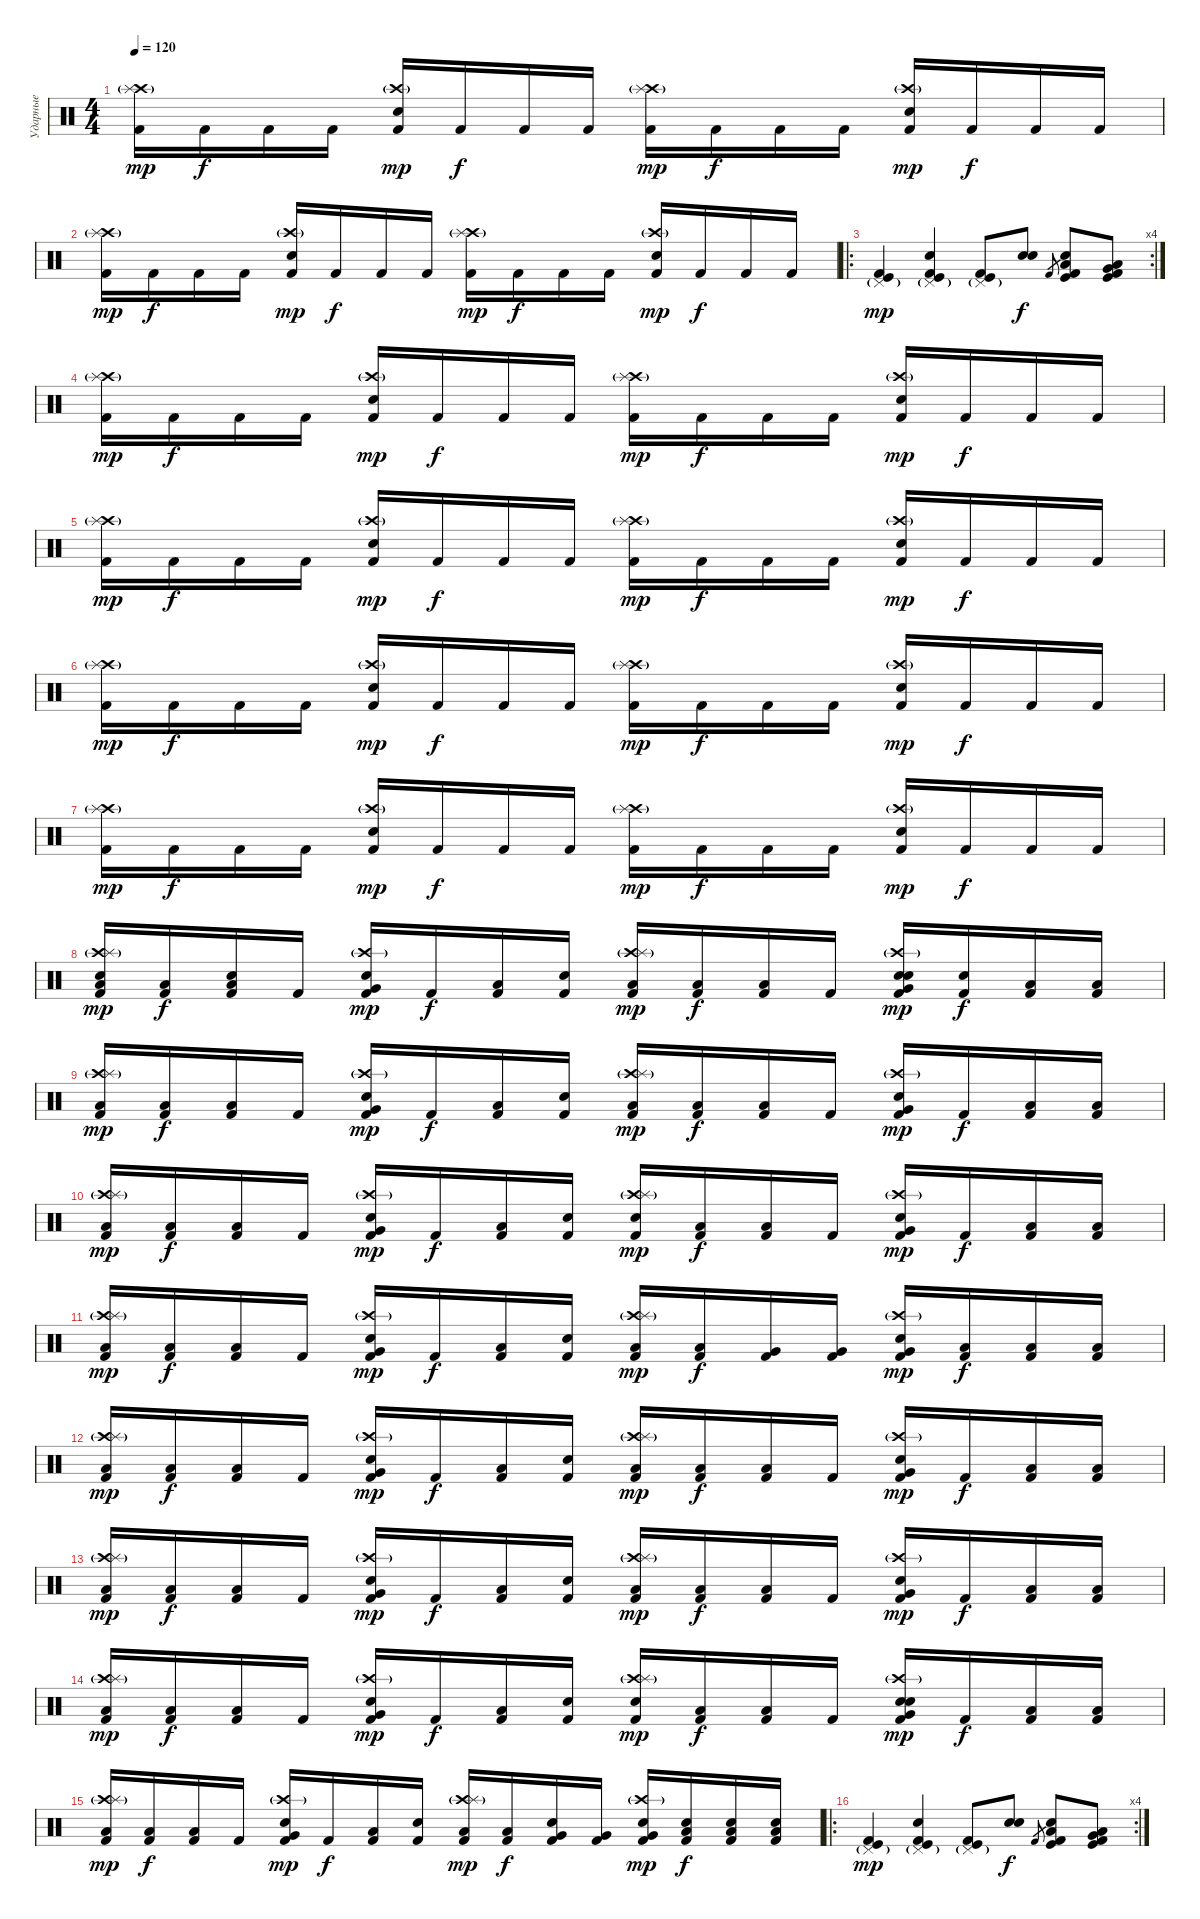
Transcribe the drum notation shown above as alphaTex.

\track ("Ударные" "Ударные") {instrument percussion bank 2}
\staff {score}
\articulation defaults
\ts (4 4)
\tempo 120
\clef neutral
\ks c
("Kick (hit) 2" "Crash high (hit)"{g} "Splash (hit)"{g}).16{dy mp} "Kick (hit) 2".16{dy f} "Kick (hit) 2".16 "Kick (hit) 2".16 ("Kick (hit) 2" "Snare (hit) 2" "Crash high (hit)"{g}).16{dy mp} "Kick (hit) 2".16{dy f} "Kick (hit) 2".16 "Kick (hit) 2".16 ("Kick (hit) 2" "Crash high (hit)"{g} "Splash (hit)"{g}).16{dy mp} "Kick (hit) 2".16{dy f} "Kick (hit) 2".16 "Kick (hit) 2".16 ("Kick (hit) 2" "Snare (hit) 2" "Crash high (hit)"{g}).16{dy mp} "Kick (hit) 2".16{dy f} "Kick (hit) 2".16 "Kick (hit) 2".16 |
("Kick (hit) 2" "Crash high (hit)"{g} "Splash (hit)"{g}).16{dy mp} "Kick (hit) 2".16{dy f} "Kick (hit) 2".16 "Kick (hit) 2".16 ("Kick (hit) 2" "Snare (hit) 2" "Crash high (hit)"{g}).16{dy mp} "Kick (hit) 2".16{dy f} "Kick (hit) 2".16 "Kick (hit) 2".16 ("Kick (hit) 2" "Crash high (hit)"{g} "Splash (hit)"{g}).16{dy mp} "Kick (hit) 2".16{dy f} "Kick (hit) 2".16 "Kick (hit) 2".16 ("Kick (hit) 2" "Snare (hit) 2" "Crash high (hit)"{g}).16{dy mp} "Kick (hit) 2".16{dy f} "Kick (hit) 2".16 "Kick (hit) 2".16 |
\ro
\rc 4
("Kick (hit) 2" "Pedal Hi-Hat (hit)"{g} "Kick (hit)").4{dy mp} ("Kick (hit) 2" "Pedal Hi-Hat (hit)"{g} "Snare (hit) 2" "Kick (hit)").4 ("Kick (hit) 2" "Pedal Hi-Hat (hit)"{g} "Kick (hit)").8 ("Snare (hit)" "Snare (hit)").8{dy f} "Kick (hit) 2".8{gr} ("Kick (hit) 2" "Low Tom (hit)" "Snare (hit) 2" "Kick (hit)").8 ("Kick (hit) 2" "Very Low Tom (hit)" "Low Floor Tom (hit)" "Kick (hit)").8 |
("Kick (hit) 2" "Crash high (hit)"{g} "Splash (hit)"{g}).16{dy mp} "Kick (hit) 2".16{dy f} "Kick (hit) 2".16 "Kick (hit) 2".16 ("Kick (hit) 2" "Snare (hit) 2" "Crash high (hit)"{g}).16{dy mp} "Kick (hit) 2".16{dy f} "Kick (hit) 2".16 "Kick (hit) 2".16 ("Kick (hit) 2" "Crash high (hit)"{g} "Splash (hit)"{g}).16{dy mp} "Kick (hit) 2".16{dy f} "Kick (hit) 2".16 "Kick (hit) 2".16 ("Kick (hit) 2" "Snare (hit) 2" "Crash high (hit)"{g}).16{dy mp} "Kick (hit) 2".16{dy f} "Kick (hit) 2".16 "Kick (hit) 2".16 |
("Kick (hit) 2" "Crash high (hit)"{g} "Splash (hit)"{g}).16{dy mp} "Kick (hit) 2".16{dy f} "Kick (hit) 2".16 "Kick (hit) 2".16 ("Kick (hit) 2" "Snare (hit) 2" "Crash high (hit)"{g}).16{dy mp} "Kick (hit) 2".16{dy f} "Kick (hit) 2".16 "Kick (hit) 2".16 ("Kick (hit) 2" "Crash high (hit)"{g} "Splash (hit)"{g}).16{dy mp} "Kick (hit) 2".16{dy f} "Kick (hit) 2".16 "Kick (hit) 2".16 ("Kick (hit) 2" "Snare (hit) 2" "Crash high (hit)"{g}).16{dy mp} "Kick (hit) 2".16{dy f} "Kick (hit) 2".16 "Kick (hit) 2".16 |
("Kick (hit) 2" "Crash high (hit)"{g} "Splash (hit)"{g}).16{dy mp} "Kick (hit) 2".16{dy f} "Kick (hit) 2".16 "Kick (hit) 2".16 ("Kick (hit) 2" "Snare (hit) 2" "Crash high (hit)"{g}).16{dy mp} "Kick (hit) 2".16{dy f} "Kick (hit) 2".16 "Kick (hit) 2".16 ("Kick (hit) 2" "Crash high (hit)"{g} "Splash (hit)"{g}).16{dy mp} "Kick (hit) 2".16{dy f} "Kick (hit) 2".16 "Kick (hit) 2".16 ("Kick (hit) 2" "Snare (hit) 2" "Crash high (hit)"{g}).16{dy mp} "Kick (hit) 2".16{dy f} "Kick (hit) 2".16 "Kick (hit) 2".16 |
("Kick (hit) 2" "Crash high (hit)"{g} "Splash (hit)"{g}).16{dy mp} "Kick (hit) 2".16{dy f} "Kick (hit) 2".16 "Kick (hit) 2".16 ("Kick (hit) 2" "Snare (hit) 2" "Crash high (hit)"{g}).16{dy mp} "Kick (hit) 2".16{dy f} "Kick (hit) 2".16 "Kick (hit) 2".16 ("Kick (hit) 2" "Crash high (hit)"{g} "Splash (hit)"{g}).16{dy mp} "Kick (hit) 2".16{dy f} "Kick (hit) 2".16 "Kick (hit) 2".16 ("Kick (hit) 2" "Snare (hit) 2" "Crash high (hit)"{g}).16{dy mp} "Kick (hit) 2".16{dy f} "Kick (hit) 2".16 "Kick (hit) 2".16 |
("Kick (hit) 2" "Snare (hit)" "Crash high (hit)"{g} "Splash (hit)"{g} "Low Floor Tom (hit)").16{dy mp} ("Kick (hit) 2" "Low Floor Tom (hit)").16{dy f} ("Kick (hit) 2" "Snare (hit)" "Low Floor Tom (hit)").16 "Kick (hit) 2".16 ("Kick (hit) 2" "Electric Snare (hit)" "Crash high (hit)"{g} "Very Low Tom (hit)").16{dy mp} "Kick (hit) 2".16{dy f} ("Kick (hit) 2" "Low Floor Tom (hit)").16 ("Kick (hit) 2" "Snare (hit)").16 ("Kick (hit) 2" "Crash high (hit)"{g} "Splash (hit)"{g} "Low Floor Tom (hit)").16{dy mp} ("Kick (hit) 2" "Low Floor Tom (hit)").16{dy f} ("Kick (hit) 2" "Low Floor Tom (hit)").16 "Kick (hit) 2".16 ("Kick (hit) 2" "Electric Snare (hit)" "Snare (hit)" "Crash high (hit)"{g} "Very Low Tom (hit)").16{dy mp} ("Kick (hit) 2" "Snare (hit)").16{dy f} ("Kick (hit) 2" "Low Tom (hit)").16 ("Kick (hit) 2" "Low Floor Tom (hit)").16 |
("Kick (hit) 2" "Crash high (hit)"{g} "Splash (hit)"{g} "Low Floor Tom (hit)").16{dy mp} ("Kick (hit) 2" "Low Floor Tom (hit)").16{dy f} ("Kick (hit) 2" "Low Floor Tom (hit)").16 "Kick (hit) 2".16 ("Kick (hit) 2" "Electric Snare (hit)" "Crash high (hit)"{g} "Very Low Tom (hit)").16{dy mp} "Kick (hit) 2".16{dy f} ("Kick (hit) 2" "Low Floor Tom (hit)").16 ("Kick (hit) 2" "Snare (hit)").16 ("Kick (hit) 2" "Crash high (hit)"{g} "Splash (hit)"{g} "Low Floor Tom (hit)").16{dy mp} ("Kick (hit) 2" "Low Floor Tom (hit)").16{dy f} ("Kick (hit) 2" "Low Floor Tom (hit)").16 "Kick (hit) 2".16 ("Kick (hit) 2" "Electric Snare (hit)" "Crash high (hit)"{g} "Very Low Tom (hit)").16{dy mp} "Kick (hit) 2".16{dy f} ("Kick (hit) 2" "Low Tom (hit)").16 ("Kick (hit) 2" "Low Floor Tom (hit)").16 |
("Kick (hit) 2" "Crash high (hit)"{g} "Splash (hit)"{g} "Low Floor Tom (hit)").16{dy mp} ("Kick (hit) 2" "Low Floor Tom (hit)").16{dy f} ("Kick (hit) 2" "Low Floor Tom (hit)").16 "Kick (hit) 2".16 ("Kick (hit) 2" "Electric Snare (hit)" "Crash high (hit)"{g} "Very Low Tom (hit)").16{dy mp} "Kick (hit) 2".16{dy f} ("Kick (hit) 2" "Low Floor Tom (hit)").16 ("Kick (hit) 2" "Snare (hit)").16 ("Kick (hit) 2" "Crash high (hit)"{g} "Splash (hit)"{g} "Snare (hit)").16{dy mp} ("Kick (hit) 2" "Low Floor Tom (hit)").16{dy f} ("Kick (hit) 2" "Low Floor Tom (hit)").16 "Kick (hit) 2".16 ("Kick (hit) 2" "Electric Snare (hit)" "Crash high (hit)"{g} "Very Low Tom (hit)").16{dy mp} "Kick (hit) 2".16{dy f} ("Kick (hit) 2" "Low Tom (hit)").16 ("Kick (hit) 2" "Low Floor Tom (hit)").16 |
("Kick (hit) 2" "Crash high (hit)"{g} "Splash (hit)"{g} "Low Floor Tom (hit)").16{dy mp} ("Kick (hit) 2" "Low Floor Tom (hit)").16{dy f} ("Kick (hit) 2" "Low Floor Tom (hit)").16 "Kick (hit) 2".16 ("Kick (hit) 2" "Electric Snare (hit)" "Crash high (hit)"{g} "Very Low Tom (hit)").16{dy mp} "Kick (hit) 2".16{dy f} ("Kick (hit) 2" "Low Floor Tom (hit)").16 ("Kick (hit) 2" "Snare (hit)").16 ("Kick (hit) 2" "Crash high (hit)"{g} "Splash (hit)"{g} "Low Floor Tom (hit)").16{dy mp} ("Kick (hit) 2" "Low Floor Tom (hit)").16{dy f} ("Kick (hit) 2" "Very Low Tom (hit)").16 ("Kick (hit) 2" "Very Low Tom (hit)").16 ("Kick (hit) 2" "Electric Snare (hit)" "Crash high (hit)"{g} "Very Low Tom (hit)").16{dy mp} ("Kick (hit) 2" "Low Tom (hit)").16{dy f} ("Kick (hit) 2" "Low Tom (hit)").16 ("Kick (hit) 2" "Low Tom (hit)").16 |
("Kick (hit) 2" "Crash high (hit)"{g} "Splash (hit)"{g} "Low Floor Tom (hit)").16{dy mp} ("Kick (hit) 2" "Low Floor Tom (hit)").16{dy f} ("Kick (hit) 2" "Low Floor Tom (hit)").16 "Kick (hit) 2".16 ("Kick (hit) 2" "Electric Snare (hit)" "Crash high (hit)"{g} "Very Low Tom (hit)").16{dy mp} "Kick (hit) 2".16{dy f} ("Kick (hit) 2" "Low Floor Tom (hit)").16 ("Kick (hit) 2" "Snare (hit)").16 ("Kick (hit) 2" "Crash high (hit)"{g} "Splash (hit)"{g} "Low Floor Tom (hit)").16{dy mp} ("Kick (hit) 2" "Low Floor Tom (hit)").16{dy f} ("Kick (hit) 2" "Low Floor Tom (hit)").16 "Kick (hit) 2".16 ("Kick (hit) 2" "Electric Snare (hit)" "Crash high (hit)"{g} "Very Low Tom (hit)").16{dy mp} "Kick (hit) 2".16{dy f} ("Kick (hit) 2" "Low Tom (hit)").16 ("Kick (hit) 2" "Low Floor Tom (hit)").16 |
("Kick (hit) 2" "Crash high (hit)"{g} "Splash (hit)"{g} "Low Floor Tom (hit)").16{dy mp} ("Kick (hit) 2" "Low Floor Tom (hit)").16{dy f} ("Kick (hit) 2" "Low Floor Tom (hit)").16 "Kick (hit) 2".16 ("Kick (hit) 2" "Electric Snare (hit)" "Crash high (hit)"{g} "Very Low Tom (hit)").16{dy mp} "Kick (hit) 2".16{dy f} ("Kick (hit) 2" "Low Floor Tom (hit)").16 ("Kick (hit) 2" "Snare (hit)").16 ("Kick (hit) 2" "Crash high (hit)"{g} "Splash (hit)"{g} "Low Floor Tom (hit)").16{dy mp} ("Kick (hit) 2" "Low Floor Tom (hit)").16{dy f} ("Kick (hit) 2" "Low Floor Tom (hit)").16 "Kick (hit) 2".16 ("Kick (hit) 2" "Electric Snare (hit)" "Crash high (hit)"{g} "Very Low Tom (hit)").16{dy mp} "Kick (hit) 2".16{dy f} ("Kick (hit) 2" "Low Tom (hit)").16 ("Kick (hit) 2" "Low Floor Tom (hit)").16 |
("Kick (hit) 2" "Crash high (hit)"{g} "Splash (hit)"{g} "Low Floor Tom (hit)").16{dy mp} ("Kick (hit) 2" "Low Floor Tom (hit)").16{dy f} ("Kick (hit) 2" "Low Floor Tom (hit)").16 "Kick (hit) 2".16 ("Kick (hit) 2" "Electric Snare (hit)" "Crash high (hit)"{g} "Very Low Tom (hit)").16{dy mp} "Kick (hit) 2".16{dy f} ("Kick (hit) 2" "Low Floor Tom (hit)").16 ("Kick (hit) 2" "Snare (hit)").16 ("Kick (hit) 2" "Crash high (hit)"{g} "Splash (hit)"{g} "Snare (hit)").16{dy mp} ("Kick (hit) 2" "Low Floor Tom (hit)").16{dy f} ("Kick (hit) 2" "Low Floor Tom (hit)").16 "Kick (hit) 2".16 ("Kick (hit) 2" "Electric Snare (hit)" "Snare (hit)" "Crash high (hit)"{g} "Very Low Tom (hit)").16{dy mp} "Kick (hit) 2".16{dy f} ("Kick (hit) 2" "Low Tom (hit)").16 ("Kick (hit) 2" "Low Floor Tom (hit)").16 |
("Kick (hit) 2" "Crash high (hit)"{g} "Splash (hit)"{g} "Low Floor Tom (hit)").16{dy mp} ("Kick (hit) 2" "Low Floor Tom (hit)").16{dy f} ("Kick (hit) 2" "Low Floor Tom (hit)").16 "Kick (hit) 2".16 ("Kick (hit) 2" "Electric Snare (hit)" "Crash high (hit)"{g} "Very Low Tom (hit)").16{dy mp} "Kick (hit) 2".16{dy f} ("Kick (hit) 2" "Low Floor Tom (hit)").16 ("Kick (hit) 2" "Snare (hit)").16 ("Kick (hit) 2" "Crash high (hit)"{g} "Splash (hit)"{g} "Low Floor Tom (hit)").16{dy mp} ("Kick (hit) 2" "Low Floor Tom (hit)").16{dy f} ("Kick (hit) 2" "Electric Snare (hit)" "Very Low Tom (hit)").16 ("Kick (hit) 2" "Very Low Tom (hit)").16 ("Kick (hit) 2" "Electric Snare (hit)" "Crash high (hit)"{g} "Very Low Tom (hit)").16{dy mp} ("Kick (hit) 2" "Electric Snare (hit)" "Low Tom (hit)").16{dy f} ("Kick (hit) 2" "Electric Snare (hit)" "Low Tom (hit)").16 ("Kick (hit) 2" "Electric Snare (hit)" "Low Tom (hit)").16 |
\ro
\rc 4
("Kick (hit) 2" "Pedal Hi-Hat (hit)"{g} "Kick (hit)").4{dy mp} ("Kick (hit) 2" "Pedal Hi-Hat (hit)"{g} "Snare (hit) 2" "Kick (hit)").4 ("Kick (hit) 2" "Pedal Hi-Hat (hit)"{g} "Kick (hit)").8 ("Snare (hit)" "Snare (hit)").8{dy f} "Kick (hit) 2".8{gr} ("Kick (hit) 2" "Low Tom (hit)" "Snare (hit) 2" "Kick (hit)").8 ("Kick (hit) 2" "Very Low Tom (hit)" "Low Floor Tom (hit)" "Kick (hit)").8
